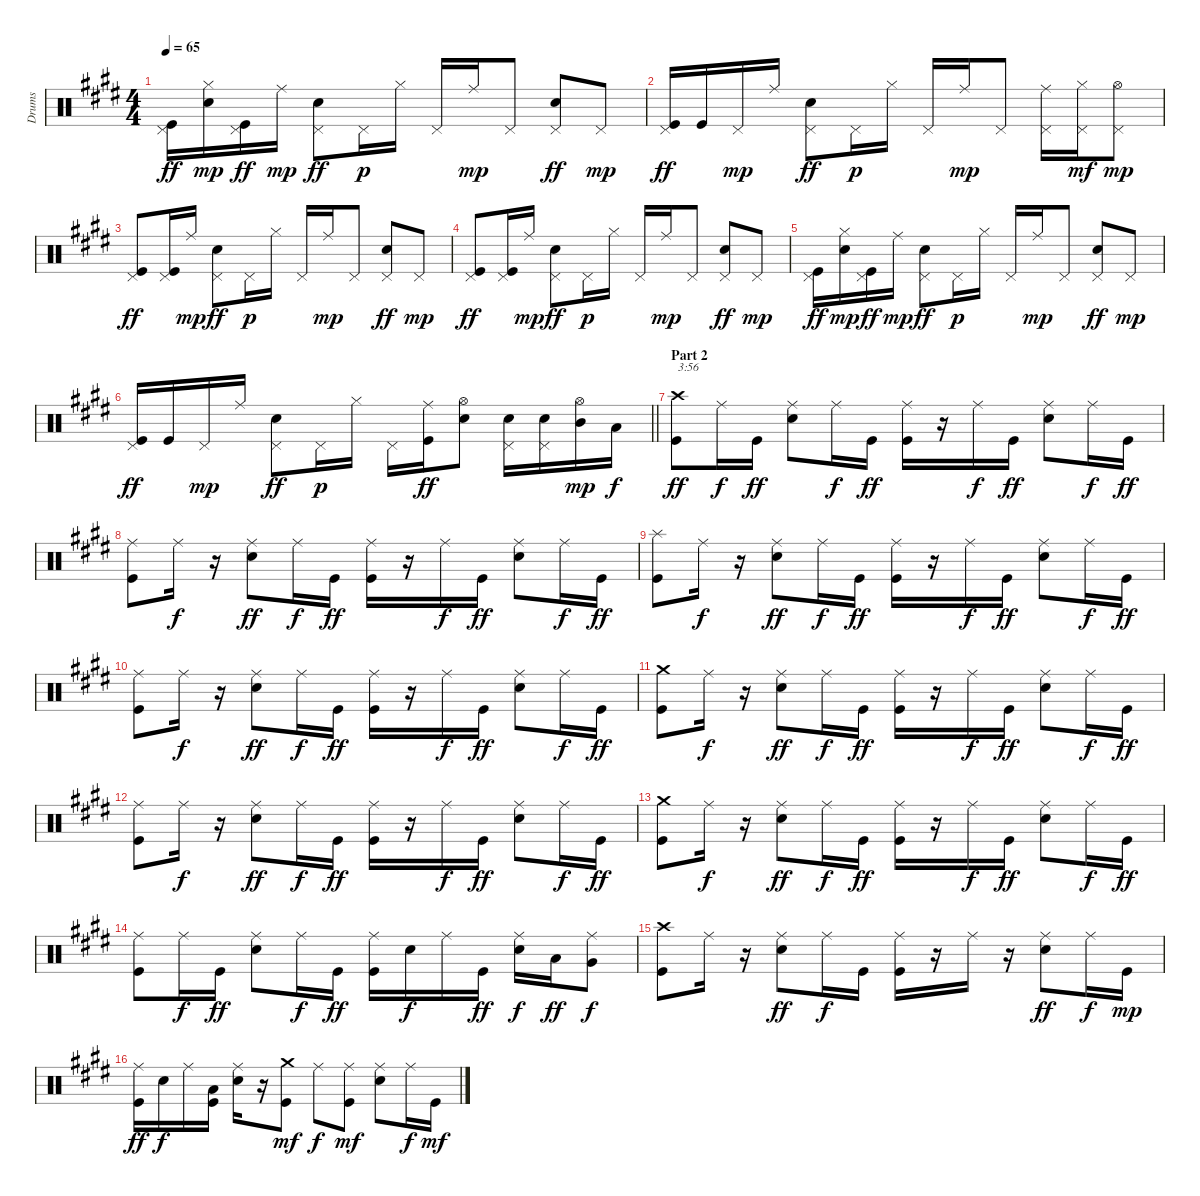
\track ("Drums" "Drums") {instrument percussion}
\staff {score}
\articulation defaults
\ts (4 4)
\tempo 65
\clef neutral
\ks c#minor
("Pedal Hi-Hat (hit)" "Kick (hit)").16{dy ff} ("Hi-Hat (closed)" "Electric Snare (hit)").16{dy mp} ("Pedal Hi-Hat (hit)" "Kick (hit)").16{dy ff} "Ride (middle)".16{dy mp} ("Pedal Hi-Hat (hit)" "Electric Snare (hit)").8{dy ff} "Pedal Hi-Hat (hit)".16{dy p} "Hi-Hat (closed)".16 "Pedal Hi-Hat (hit)".16 "Ride (middle)".16{dy mp} "Pedal Hi-Hat (hit)".8 ("Pedal Hi-Hat (hit)" "Electric Snare (hit)").8{dy ff} "Pedal Hi-Hat (hit)".8{dy mp} |
("Pedal Hi-Hat (hit)" "Kick (hit)").16{dy ff} "Kick (hit)".16 "Pedal Hi-Hat (hit)".16{dy mp} "Ride (middle)".16 ("Pedal Hi-Hat (hit)" "Electric Snare (hit)").8{dy ff} "Pedal Hi-Hat (hit)".16{dy p} "Hi-Hat (closed)".16 "Pedal Hi-Hat (hit)".16 "Ride (middle)".16{dy mp} "Pedal Hi-Hat (hit)".8 ("Ride (middle)" "Pedal Hi-Hat (hit)").16 ("Hi-Hat (closed)" "Pedal Hi-Hat (hit)").16{dy mf} ("Pedal Hi-Hat (hit)" "Hi-Hat (open)").8{dy mp} |
("Pedal Hi-Hat (hit)" "Kick (hit)").8{dy ff} ("Pedal Hi-Hat (hit)" "Kick (hit)").16 "Ride (middle)".16{dy mp} ("Pedal Hi-Hat (hit)" "Electric Snare (hit)").8{dy ff} "Pedal Hi-Hat (hit)".16{dy p} "Hi-Hat (closed)".16 "Pedal Hi-Hat (hit)".16 "Ride (middle)".16{dy mp} "Pedal Hi-Hat (hit)".8 ("Pedal Hi-Hat (hit)" "Electric Snare (hit)").8{dy ff} "Pedal Hi-Hat (hit)".8{dy mp} |
("Pedal Hi-Hat (hit)" "Kick (hit)").8{dy ff} ("Pedal Hi-Hat (hit)" "Kick (hit)").16 "Ride (middle)".16{dy mp} ("Pedal Hi-Hat (hit)" "Electric Snare (hit)").8{dy ff} "Pedal Hi-Hat (hit)".16{dy p} "Hi-Hat (closed)".16 "Pedal Hi-Hat (hit)".16 "Ride (middle)".16{dy mp} "Pedal Hi-Hat (hit)".8 ("Pedal Hi-Hat (hit)" "Electric Snare (hit)").8{dy ff} "Pedal Hi-Hat (hit)".8{dy mp} |
("Pedal Hi-Hat (hit)" "Kick (hit)").16{dy ff} ("Hi-Hat (closed)" "Electric Snare (hit)").16{dy mp} ("Pedal Hi-Hat (hit)" "Kick (hit)").16{dy ff} "Ride (middle)".16{dy mp} ("Pedal Hi-Hat (hit)" "Electric Snare (hit)").8{dy ff} "Pedal Hi-Hat (hit)".16{dy p} "Hi-Hat (closed)".16 "Pedal Hi-Hat (hit)".16 "Ride (middle)".16{dy mp} "Pedal Hi-Hat (hit)".8 ("Pedal Hi-Hat (hit)" "Electric Snare (hit)").8{dy ff} "Pedal Hi-Hat (hit)".8{dy mp} |
\barLineRight lightlight
("Pedal Hi-Hat (hit)" "Kick (hit)").16{dy ff} "Kick (hit)".16 "Pedal Hi-Hat (hit)".16{dy mp} "Ride (middle)".16 ("Pedal Hi-Hat (hit)" "Electric Snare (hit)").8{dy ff} "Pedal Hi-Hat (hit)".16{dy p} "Hi-Hat (closed)".16 "Pedal Hi-Hat (hit)".16 ("Ride (middle)" "Kick (hit)").16{dy ff} ("Hi-Hat (open)" "Electric Snare (hit)").8 ("Pedal Hi-Hat (hit)" "Electric Snare (hit)").16 ("Pedal Hi-Hat (hit)" "Electric Snare (hit)").16 ("Hi-Hat (open)" "Mid Tom (hit)").16{dy mp} "Low Tom (hit)".16{dy f} |
\section ("" "Part 2")
("Crash high (hit)" "Kick (hit)").8{txt "3:56" dy ff} "Ride (middle)".16{dy f} "Kick (hit)".16{dy ff} ("Ride (middle)" "Electric Snare (hit)").8 "Ride (middle)".16{dy f} "Kick (hit)".16{dy ff} ("Ride (middle)" "Kick (hit)").16 r.16 "Ride (middle)".16{dy f} "Kick (hit)".16{dy ff} ("Ride (middle)" "Electric Snare (hit)").8 "Ride (middle)".16{dy f} "Kick (hit)".16{dy ff} |
("Ride (middle)" "Kick (hit)").8 "Ride (middle)".16{dy f} r.16 ("Ride (middle)" "Electric Snare (hit)").8{dy ff} "Ride (middle)".16{dy f} "Kick (hit)".16{dy ff} ("Ride (middle)" "Kick (hit)").16 r.16 "Ride (middle)".16{dy f} "Kick (hit)".16{dy ff} ("Ride (middle)" "Electric Snare (hit)").8 "Ride (middle)".16{dy f} "Kick (hit)".16{dy ff} |
("Splash (hit)" "Kick (hit)").8 "Ride (middle)".16{dy f} r.16 ("Ride (middle)" "Electric Snare (hit)").8{dy ff} "Ride (middle)".16{dy f} "Kick (hit)".16{dy ff} ("Ride (middle)" "Kick (hit)").16 r.16 "Ride (middle)".16{dy f} "Kick (hit)".16{dy ff} ("Ride (middle)" "Electric Snare (hit)").8 "Ride (middle)".16{dy f} "Kick (hit)".16{dy ff} |
("Ride (middle)" "Kick (hit)").8 "Ride (middle)".16{dy f} r.16 ("Ride (middle)" "Electric Snare (hit)").8{dy ff} "Ride (middle)".16{dy f} "Kick (hit)".16{dy ff} ("Ride (middle)" "Kick (hit)").16 r.16 "Ride (middle)".16{dy f} "Kick (hit)".16{dy ff} ("Ride (middle)" "Electric Snare (hit)").8 "Ride (middle)".16{dy f} "Kick (hit)".16{dy ff} |
("Crash medium (hit)" "Kick (hit)").8 "Ride (middle)".16{dy f} r.16 ("Ride (middle)" "Electric Snare (hit)").8{dy ff} "Ride (middle)".16{dy f} "Kick (hit)".16{dy ff} ("Ride (middle)" "Kick (hit)").16 r.16 "Ride (middle)".16{dy f} "Kick (hit)".16{dy ff} ("Ride (middle)" "Electric Snare (hit)").8 "Ride (middle)".16{dy f} "Kick (hit)".16{dy ff} |
("Ride (middle)" "Kick (hit)").8 "Ride (middle)".16{dy f} r.16 ("Ride (middle)" "Electric Snare (hit)").8{dy ff} "Ride (middle)".16{dy f} "Kick (hit)".16{dy ff} ("Ride (middle)" "Kick (hit)").16 r.16 "Ride (middle)".16{dy f} "Kick (hit)".16{dy ff} ("Ride (middle)" "Electric Snare (hit)").8 "Ride (middle)".16{dy f} "Kick (hit)".16{dy ff} |
("Crash medium (hit)" "Kick (hit)").8 "Ride (middle)".16{dy f} r.16 ("Ride (middle)" "Electric Snare (hit)").8{dy ff} "Ride (middle)".16{dy f} "Kick (hit)".16{dy ff} ("Ride (middle)" "Kick (hit)").16 r.16 "Ride (middle)".16{dy f} "Kick (hit)".16{dy ff} ("Ride (middle)" "Electric Snare (hit)").8 "Ride (middle)".16{dy f} "Kick (hit)".16{dy ff} |
("Ride (middle)" "Kick (hit)").8 "Ride (middle)".16{dy f} "Kick (hit)".16{dy ff} ("Ride (middle)" "Electric Snare (hit)").8 "Ride (middle)".16{dy f} "Kick (hit)".16{dy ff} ("Ride (middle)" "Kick (hit)").16 "Electric Snare (hit)".16{dy f} "Ride (middle)".16 "Kick (hit)".16{dy ff} ("Ride (middle)" "Electric Snare (hit)").16{dy f} "Low Tom (hit)".16{dy ff} ("Ride (middle)" "Very Low Tom (hit)").8{dy f} |
("Crash high (hit)" "Kick (hit)").8 "Ride (middle)".16 r.16 ("Ride (middle)" "Electric Snare (hit)").8{dy ff} "Ride (middle)".16{dy f} "Kick (hit)".16 ("Ride (middle)" "Kick (hit)").16 r.16 "Ride (middle)".16 r.16 ("Ride (middle)" "Electric Snare (hit)").8{dy ff} "Ride (middle)".16{dy f} "Kick (hit)".16{dy mp} |
("Ride (middle)" "Kick (hit)").16{dy ff} "Electric Snare (hit)".16{dy f} "Ride (middle)".16 ("Low Tom (hit)" "Kick (hit)").16 ("Ride (middle)" "Electric Snare (hit)").16 r.16 ("Crash medium (hit)" "Kick (hit)").8{dy mf} "Ride (middle)".8{dy f} ("Ride (middle)" "Kick (hit)").8{dy mf} ("Ride (middle)" "Electric Snare (hit)").8 "Ride (middle)".16{dy f} "Kick (hit)".16{dy mf}
